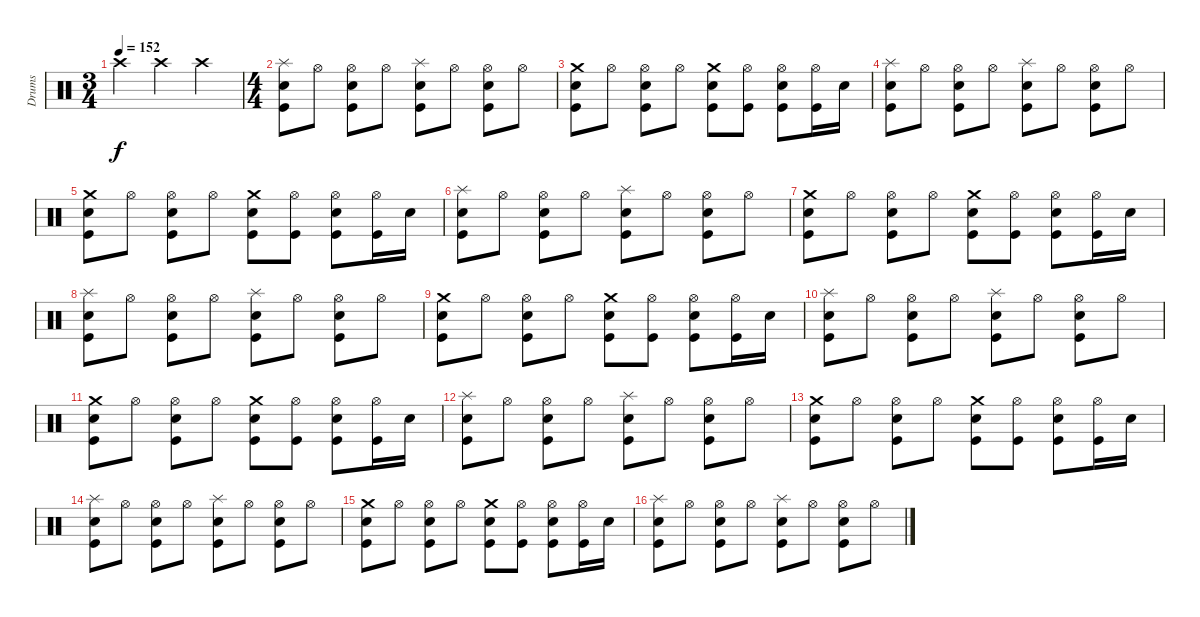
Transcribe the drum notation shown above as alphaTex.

\track ("Drums" "Drums") {instrument percussion}
\staff {score}
\articulation defaults
\ts (3 4)
\tempo 152
\clef neutral
\ks c "Crash high (hit)".4{dy f} "Crash high (hit)".4 "Crash high (hit)".4
|
\ts (4 4)
("Splash (hit)" "Electric Snare (hit)" "Kick (hit)").8 "Hi-Hat (open)".8 ("Hi-Hat (open)" "Electric Snare (hit)" "Kick (hit)").8 "Hi-Hat (open)".8 ("Splash (hit)" "Electric Snare (hit)" "Kick (hit)").8 "Hi-Hat (open)".8 ("Hi-Hat (open)" "Electric Snare (hit)" "Kick (hit)").8 "Hi-Hat (open)".8 |
("Crash medium (hit)" "Electric Snare (hit)" "Kick (hit)").8 "Hi-Hat (open)".8 ("Hi-Hat (open)" "Electric Snare (hit)" "Kick (hit)").8 "Hi-Hat (open)".8 ("Crash medium (hit)" "Electric Snare (hit)" "Kick (hit)").8 ("Hi-Hat (open)" "Kick (hit)").8 ("Hi-Hat (open)" "Electric Snare (hit)" "Kick (hit)").8 ("Hi-Hat (open)" "Kick (hit)").16 "Electric Snare (hit)".16 |
("Splash (hit)" "Electric Snare (hit)" "Kick (hit)").8 "Hi-Hat (open)".8 ("Hi-Hat (open)" "Electric Snare (hit)" "Kick (hit)").8 "Hi-Hat (open)".8 ("Splash (hit)" "Electric Snare (hit)" "Kick (hit)").8 "Hi-Hat (open)".8 ("Hi-Hat (open)" "Electric Snare (hit)" "Kick (hit)").8 "Hi-Hat (open)".8 |
("Crash medium (hit)" "Electric Snare (hit)" "Kick (hit)").8 "Hi-Hat (open)".8 ("Hi-Hat (open)" "Electric Snare (hit)" "Kick (hit)").8 "Hi-Hat (open)".8 ("Crash medium (hit)" "Electric Snare (hit)" "Kick (hit)").8 ("Hi-Hat (open)" "Kick (hit)").8 ("Hi-Hat (open)" "Electric Snare (hit)" "Kick (hit)").8 ("Hi-Hat (open)" "Kick (hit)").16 "Electric Snare (hit)".16 |
("Splash (hit)" "Electric Snare (hit)" "Kick (hit)").8 "Hi-Hat (open)".8 ("Hi-Hat (open)" "Electric Snare (hit)" "Kick (hit)").8 "Hi-Hat (open)".8 ("Splash (hit)" "Electric Snare (hit)" "Kick (hit)").8 "Hi-Hat (open)".8 ("Hi-Hat (open)" "Electric Snare (hit)" "Kick (hit)").8 "Hi-Hat (open)".8 |
("Crash medium (hit)" "Electric Snare (hit)" "Kick (hit)").8 "Hi-Hat (open)".8 ("Hi-Hat (open)" "Electric Snare (hit)" "Kick (hit)").8 "Hi-Hat (open)".8 ("Crash medium (hit)" "Electric Snare (hit)" "Kick (hit)").8 ("Hi-Hat (open)" "Kick (hit)").8 ("Hi-Hat (open)" "Electric Snare (hit)" "Kick (hit)").8 ("Hi-Hat (open)" "Kick (hit)").16 "Electric Snare (hit)".16 |
("Splash (hit)" "Electric Snare (hit)" "Kick (hit)").8 "Hi-Hat (open)".8 ("Hi-Hat (open)" "Electric Snare (hit)" "Kick (hit)").8 "Hi-Hat (open)".8 ("Splash (hit)" "Electric Snare (hit)" "Kick (hit)").8 "Hi-Hat (open)".8 ("Hi-Hat (open)" "Electric Snare (hit)" "Kick (hit)").8 "Hi-Hat (open)".8 |
("Crash medium (hit)" "Electric Snare (hit)" "Kick (hit)").8 "Hi-Hat (open)".8 ("Hi-Hat (open)" "Electric Snare (hit)" "Kick (hit)").8 "Hi-Hat (open)".8 ("Crash medium (hit)" "Electric Snare (hit)" "Kick (hit)").8 ("Hi-Hat (open)" "Kick (hit)").8 ("Hi-Hat (open)" "Electric Snare (hit)" "Kick (hit)").8 ("Hi-Hat (open)" "Kick (hit)").16 "Electric Snare (hit)".16 |
("Splash (hit)" "Electric Snare (hit)" "Kick (hit)").8 "Hi-Hat (open)".8 ("Hi-Hat (open)" "Electric Snare (hit)" "Kick (hit)").8 "Hi-Hat (open)".8 ("Splash (hit)" "Electric Snare (hit)" "Kick (hit)").8 "Hi-Hat (open)".8 ("Hi-Hat (open)" "Electric Snare (hit)" "Kick (hit)").8 "Hi-Hat (open)".8 |
("Crash medium (hit)" "Electric Snare (hit)" "Kick (hit)").8 "Hi-Hat (open)".8 ("Hi-Hat (open)" "Electric Snare (hit)" "Kick (hit)").8 "Hi-Hat (open)".8 ("Crash medium (hit)" "Electric Snare (hit)" "Kick (hit)").8 ("Hi-Hat (open)" "Kick (hit)").8 ("Hi-Hat (open)" "Electric Snare (hit)" "Kick (hit)").8 ("Hi-Hat (open)" "Kick (hit)").16 "Electric Snare (hit)".16 |
("Splash (hit)" "Electric Snare (hit)" "Kick (hit)").8 "Hi-Hat (open)".8 ("Hi-Hat (open)" "Electric Snare (hit)" "Kick (hit)").8 "Hi-Hat (open)".8 ("Splash (hit)" "Electric Snare (hit)" "Kick (hit)").8 "Hi-Hat (open)".8 ("Hi-Hat (open)" "Electric Snare (hit)" "Kick (hit)").8 "Hi-Hat (open)".8 |
("Crash medium (hit)" "Electric Snare (hit)" "Kick (hit)").8 "Hi-Hat (open)".8 ("Hi-Hat (open)" "Electric Snare (hit)" "Kick (hit)").8 "Hi-Hat (open)".8 ("Crash medium (hit)" "Electric Snare (hit)" "Kick (hit)").8 ("Hi-Hat (open)" "Kick (hit)").8 ("Hi-Hat (open)" "Electric Snare (hit)" "Kick (hit)").8 ("Hi-Hat (open)" "Kick (hit)").16 "Electric Snare (hit)".16 |
("Splash (hit)" "Electric Snare (hit)" "Kick (hit)").8 "Hi-Hat (open)".8 ("Hi-Hat (open)" "Electric Snare (hit)" "Kick (hit)").8 "Hi-Hat (open)".8 ("Splash (hit)" "Electric Snare (hit)" "Kick (hit)").8 "Hi-Hat (open)".8 ("Hi-Hat (open)" "Electric Snare (hit)" "Kick (hit)").8 "Hi-Hat (open)".8 |
("Crash medium (hit)" "Electric Snare (hit)" "Kick (hit)").8 "Hi-Hat (open)".8 ("Hi-Hat (open)" "Electric Snare (hit)" "Kick (hit)").8 "Hi-Hat (open)".8 ("Crash medium (hit)" "Electric Snare (hit)" "Kick (hit)").8 ("Hi-Hat (open)" "Kick (hit)").8 ("Hi-Hat (open)" "Electric Snare (hit)" "Kick (hit)").8 ("Hi-Hat (open)" "Kick (hit)").16 "Electric Snare (hit)".16 |
("Splash (hit)" "Electric Snare (hit)" "Kick (hit)").8 "Hi-Hat (open)".8 ("Hi-Hat (open)" "Electric Snare (hit)" "Kick (hit)").8 "Hi-Hat (open)".8 ("Splash (hit)" "Electric Snare (hit)" "Kick (hit)").8 "Hi-Hat (open)".8 ("Hi-Hat (open)" "Electric Snare (hit)" "Kick (hit)").8 "Hi-Hat (open)".8
